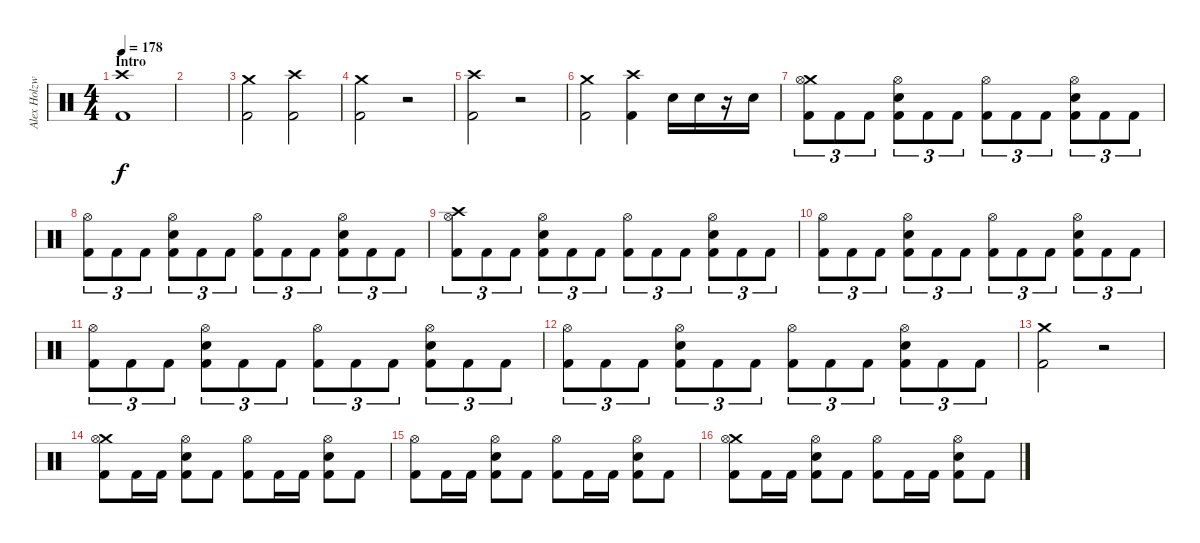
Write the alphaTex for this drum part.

\track ("Alex Holzwarth" "Alex Holzw") {instrument percussion}
\staff {score}
\articulation defaults
\ts (4 4)
\section ("" "Intro")
\tempo 178
\clef neutral
\ks c
("Crash high (hit)" "Kick (hit) 2").1{dy f} |
|
("Crash medium (hit)" "Kick (hit) 2").2 ("Crash high (hit)" "Kick (hit) 2").2 |
("Crash medium (hit)" "Kick (hit) 2").2 r.2 |
("Crash high (hit)" "Kick (hit) 2").2 r.2 |
("Crash medium (hit)" "Kick (hit) 2").2 ("Crash high (hit)" "Kick (hit) 2").4 "Snare (hit) 2".16 "Snare (hit) 2".16 r.16 "Snare (hit) 2".16 |
("Crash medium (hit)" "Hi-Hat (open)" "Kick (hit) 2").8{tu (3 2)} "Kick (hit) 2".8{tu (3 2)} "Kick (hit) 2".8{tu (3 2)} ("Hi-Hat (open)" "Snare (hit) 2" "Kick (hit) 2").8{tu (3 2)} "Kick (hit) 2".8{tu (3 2)} "Kick (hit) 2".8{tu (3 2)} ("Hi-Hat (open)" "Kick (hit) 2").8{tu (3 2)} "Kick (hit) 2".8{tu (3 2)} "Kick (hit) 2".8{tu (3 2)} ("Hi-Hat (open)" "Snare (hit) 2" "Kick (hit) 2").8{tu (3 2)} "Kick (hit) 2".8{tu (3 2)} "Kick (hit) 2".8{tu (3 2)} |
("Hi-Hat (open)" "Kick (hit) 2").8{tu (3 2)} "Kick (hit) 2".8{tu (3 2)} "Kick (hit) 2".8{tu (3 2)} ("Hi-Hat (open)" "Snare (hit) 2" "Kick (hit) 2").8{tu (3 2)} "Kick (hit) 2".8{tu (3 2)} "Kick (hit) 2".8{tu (3 2)} ("Hi-Hat (open)" "Kick (hit) 2").8{tu (3 2)} "Kick (hit) 2".8{tu (3 2)} "Kick (hit) 2".8{tu (3 2)} ("Hi-Hat (open)" "Snare (hit) 2" "Kick (hit) 2").8{tu (3 2)} "Kick (hit) 2".8{tu (3 2)} "Kick (hit) 2".8{tu (3 2)} |
("Crash high (hit)" "Hi-Hat (open)" "Kick (hit) 2").8{tu (3 2)} "Kick (hit) 2".8{tu (3 2)} "Kick (hit) 2".8{tu (3 2)} ("Hi-Hat (open)" "Snare (hit) 2" "Kick (hit) 2").8{tu (3 2)} "Kick (hit) 2".8{tu (3 2)} "Kick (hit) 2".8{tu (3 2)} ("Hi-Hat (open)" "Kick (hit) 2").8{tu (3 2)} "Kick (hit) 2".8{tu (3 2)} "Kick (hit) 2".8{tu (3 2)} ("Hi-Hat (open)" "Snare (hit) 2" "Kick (hit) 2").8{tu (3 2)} "Kick (hit) 2".8{tu (3 2)} "Kick (hit) 2".8{tu (3 2)} |
("Hi-Hat (open)" "Kick (hit) 2").8{tu (3 2)} "Kick (hit) 2".8{tu (3 2)} "Kick (hit) 2".8{tu (3 2)} ("Hi-Hat (open)" "Snare (hit) 2" "Kick (hit) 2").8{tu (3 2)} "Kick (hit) 2".8{tu (3 2)} "Kick (hit) 2".8{tu (3 2)} ("Hi-Hat (open)" "Kick (hit) 2").8{tu (3 2)} "Kick (hit) 2".8{tu (3 2)} "Kick (hit) 2".8{tu (3 2)} ("Hi-Hat (open)" "Snare (hit) 2" "Kick (hit) 2").8{tu (3 2)} "Kick (hit) 2".8{tu (3 2)} "Kick (hit) 2".8{tu (3 2)} |
("Hi-Hat (open)" "Kick (hit) 2").8{tu (3 2)} "Kick (hit) 2".8{tu (3 2)} "Kick (hit) 2".8{tu (3 2)} ("Hi-Hat (open)" "Snare (hit) 2" "Kick (hit) 2").8{tu (3 2)} "Kick (hit) 2".8{tu (3 2)} "Kick (hit) 2".8{tu (3 2)} ("Hi-Hat (open)" "Kick (hit) 2").8{tu (3 2)} "Kick (hit) 2".8{tu (3 2)} "Kick (hit) 2".8{tu (3 2)} ("Hi-Hat (open)" "Snare (hit) 2" "Kick (hit) 2").8{tu (3 2)} "Kick (hit) 2".8{tu (3 2)} "Kick (hit) 2".8{tu (3 2)} |
("Hi-Hat (open)" "Kick (hit) 2").8{tu (3 2)} "Kick (hit) 2".8{tu (3 2)} "Kick (hit) 2".8{tu (3 2)} ("Hi-Hat (open)" "Snare (hit) 2" "Kick (hit) 2").8{tu (3 2)} "Kick (hit) 2".8{tu (3 2)} "Kick (hit) 2".8{tu (3 2)} ("Hi-Hat (open)" "Kick (hit) 2").8{tu (3 2)} "Kick (hit) 2".8{tu (3 2)} "Kick (hit) 2".8{tu (3 2)} ("Hi-Hat (open)" "Snare (hit) 2" "Kick (hit) 2").8{tu (3 2)} "Kick (hit) 2".8{tu (3 2)} "Kick (hit) 2".8{tu (3 2)} |
("Crash medium (hit)" "Kick (hit) 2").2 r.2 |
("Crash medium (hit)" "Hi-Hat (open)" "Kick (hit) 2").8 "Kick (hit) 2".16 "Kick (hit) 2".16 ("Hi-Hat (open)" "Snare (hit) 2" "Kick (hit) 2").8 "Kick (hit) 2".8 ("Hi-Hat (open)" "Kick (hit) 2").8 "Kick (hit) 2".16 "Kick (hit) 2".16 ("Hi-Hat (open)" "Snare (hit) 2" "Kick (hit) 2").8 "Kick (hit) 2".8 |
("Hi-Hat (open)" "Kick (hit) 2").8 "Kick (hit) 2".16 "Kick (hit) 2".16 ("Hi-Hat (open)" "Snare (hit) 2" "Kick (hit) 2").8 "Kick (hit) 2".8 ("Hi-Hat (open)" "Kick (hit) 2").8 "Kick (hit) 2".16 "Kick (hit) 2".16 ("Hi-Hat (open)" "Snare (hit) 2" "Kick (hit) 2").8 "Kick (hit) 2".8 |
("Crash medium (hit)" "Hi-Hat (open)" "Kick (hit) 2").8 "Kick (hit) 2".16 "Kick (hit) 2".16 ("Hi-Hat (open)" "Snare (hit) 2" "Kick (hit) 2").8 "Kick (hit) 2".8 ("Hi-Hat (open)" "Kick (hit) 2").8 "Kick (hit) 2".16 "Kick (hit) 2".16 ("Hi-Hat (open)" "Snare (hit) 2" "Kick (hit) 2").8 "Kick (hit) 2".8
